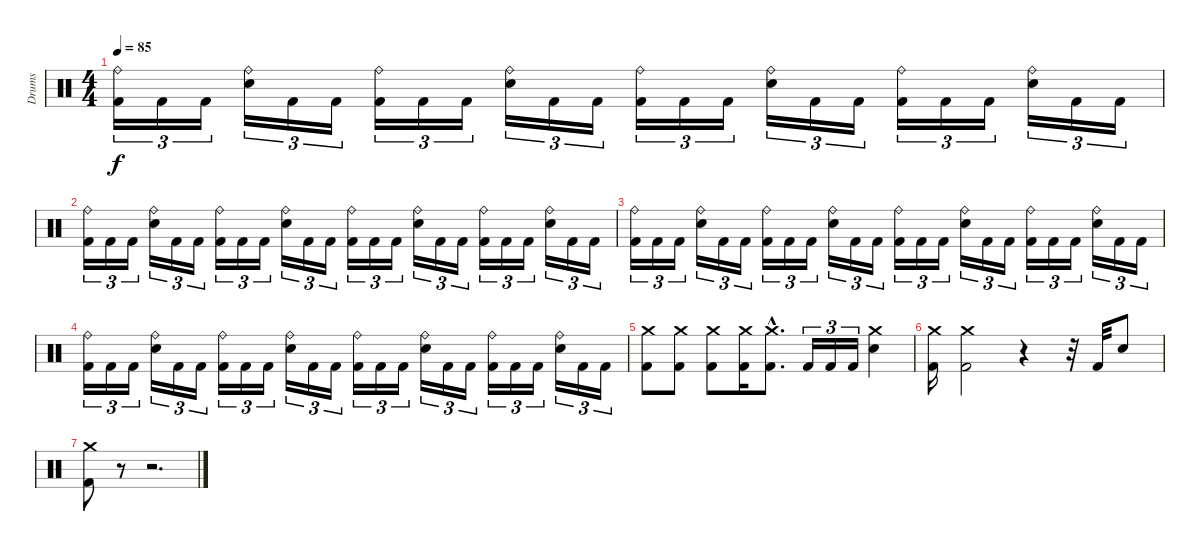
\track ("Drums" "Drums") {instrument percussion}
\staff {score}
\articulation defaults
\ts (4 4)
\tempo 85
\clef neutral
\ks c
("Ride (bell)" "Kick (hit) 2").16{tu (3 2) dy f} "Kick (hit) 2".16{tu (3 2)} "Kick (hit) 2".16{tu (3 2)} ("Ride (bell)" "Snare (hit) 2").16{tu (3 2)} "Kick (hit) 2".16{tu (3 2)} "Kick (hit) 2".16{tu (3 2)} ("Ride (bell)" "Kick (hit) 2").16{tu (3 2)} "Kick (hit) 2".16{tu (3 2)} "Kick (hit) 2".16{tu (3 2)} ("Ride (bell)" "Snare (hit) 2").16{tu (3 2)} "Kick (hit) 2".16{tu (3 2)} "Kick (hit) 2".16{tu (3 2)} ("Ride (bell)" "Kick (hit) 2").16{tu (3 2)} "Kick (hit) 2".16{tu (3 2)} "Kick (hit) 2".16{tu (3 2)} ("Ride (bell)" "Snare (hit) 2").16{tu (3 2)} "Kick (hit) 2".16{tu (3 2)} "Kick (hit) 2".16{tu (3 2)} ("Ride (bell)" "Kick (hit) 2").16{tu (3 2)} "Kick (hit) 2".16{tu (3 2)} "Kick (hit) 2".16{tu (3 2)} ("Ride (bell)" "Snare (hit) 2").16{tu (3 2)} "Kick (hit) 2".16{tu (3 2)} "Kick (hit) 2".16{tu (3 2)} |
("Ride (bell)" "Kick (hit) 2").16{tu (3 2)} "Kick (hit) 2".16{tu (3 2)} "Kick (hit) 2".16{tu (3 2)} ("Ride (bell)" "Snare (hit) 2").16{tu (3 2)} "Kick (hit) 2".16{tu (3 2)} "Kick (hit) 2".16{tu (3 2)} ("Ride (bell)" "Kick (hit) 2").16{tu (3 2)} "Kick (hit) 2".16{tu (3 2)} "Kick (hit) 2".16{tu (3 2)} ("Ride (bell)" "Snare (hit) 2").16{tu (3 2)} "Kick (hit) 2".16{tu (3 2)} "Kick (hit) 2".16{tu (3 2)} ("Ride (bell)" "Kick (hit) 2").16{tu (3 2)} "Kick (hit) 2".16{tu (3 2)} "Kick (hit) 2".16{tu (3 2)} ("Ride (bell)" "Snare (hit) 2").16{tu (3 2)} "Kick (hit) 2".16{tu (3 2)} "Kick (hit) 2".16{tu (3 2)} ("Ride (bell)" "Kick (hit) 2").16{tu (3 2)} "Kick (hit) 2".16{tu (3 2)} "Kick (hit) 2".16{tu (3 2)} ("Ride (bell)" "Snare (hit) 2").16{tu (3 2)} "Kick (hit) 2".16{tu (3 2)} "Kick (hit) 2".16{tu (3 2)} |
("Ride (bell)" "Kick (hit) 2").16{tu (3 2)} "Kick (hit) 2".16{tu (3 2)} "Kick (hit) 2".16{tu (3 2)} ("Ride (bell)" "Snare (hit) 2").16{tu (3 2)} "Kick (hit) 2".16{tu (3 2)} "Kick (hit) 2".16{tu (3 2)} ("Ride (bell)" "Kick (hit) 2").16{tu (3 2)} "Kick (hit) 2".16{tu (3 2)} "Kick (hit) 2".16{tu (3 2)} ("Ride (bell)" "Snare (hit) 2").16{tu (3 2)} "Kick (hit) 2".16{tu (3 2)} "Kick (hit) 2".16{tu (3 2)} ("Ride (bell)" "Kick (hit) 2").16{tu (3 2)} "Kick (hit) 2".16{tu (3 2)} "Kick (hit) 2".16{tu (3 2)} ("Ride (bell)" "Snare (hit) 2").16{tu (3 2)} "Kick (hit) 2".16{tu (3 2)} "Kick (hit) 2".16{tu (3 2)} ("Ride (bell)" "Kick (hit) 2").16{tu (3 2)} "Kick (hit) 2".16{tu (3 2)} "Kick (hit) 2".16{tu (3 2)} ("Ride (bell)" "Snare (hit) 2").16{tu (3 2)} "Kick (hit) 2".16{tu (3 2)} "Kick (hit) 2".16{tu (3 2)} |
("Ride (bell)" "Kick (hit) 2").16{tu (3 2)} "Kick (hit) 2".16{tu (3 2)} "Kick (hit) 2".16{tu (3 2)} ("Ride (bell)" "Snare (hit) 2").16{tu (3 2)} "Kick (hit) 2".16{tu (3 2)} "Kick (hit) 2".16{tu (3 2)} ("Ride (bell)" "Kick (hit) 2").16{tu (3 2)} "Kick (hit) 2".16{tu (3 2)} "Kick (hit) 2".16{tu (3 2)} ("Ride (bell)" "Snare (hit) 2").16{tu (3 2)} "Kick (hit) 2".16{tu (3 2)} "Kick (hit) 2".16{tu (3 2)} ("Ride (bell)" "Kick (hit) 2").16{tu (3 2)} "Kick (hit) 2".16{tu (3 2)} "Kick (hit) 2".16{tu (3 2)} ("Ride (bell)" "Snare (hit) 2").16{tu (3 2)} "Kick (hit) 2".16{tu (3 2)} "Kick (hit) 2".16{tu (3 2)} ("Ride (bell)" "Kick (hit) 2").16{tu (3 2)} "Kick (hit) 2".16{tu (3 2)} "Kick (hit) 2".16{tu (3 2)} ("Ride (bell)" "Snare (hit) 2").16{tu (3 2)} "Kick (hit) 2".16{tu (3 2)} "Kick (hit) 2".16{tu (3 2)} |
("Crash medium (hit)" "Kick (hit) 2").8 ("Crash medium (hit)" "Kick (hit) 2").8 ("Crash medium (hit)" "Kick (hit) 2").8 ("Crash medium (hit)" "Kick (hit) 2").16 ("Crash medium (hit)"{hac} "Kick (hit) 2"{hac}).8{d} "Kick (hit) 2".16{tu (3 2)} "Kick (hit) 2".16{tu (3 2)} "Kick (hit) 2".16{tu (3 2)} ("Crash medium (hit)" "Snare (hit) 2").4 |
("Crash medium (hit)" "Kick (hit) 2").16 ("Crash medium (hit)" "Kick (hit) 2").2 r.4 r.32 "Kick (hit) 2".32 "Snare (hit) 2".8 |
("Crash medium (hit)" "Kick (hit) 2").8 r.8 r.2{d}
